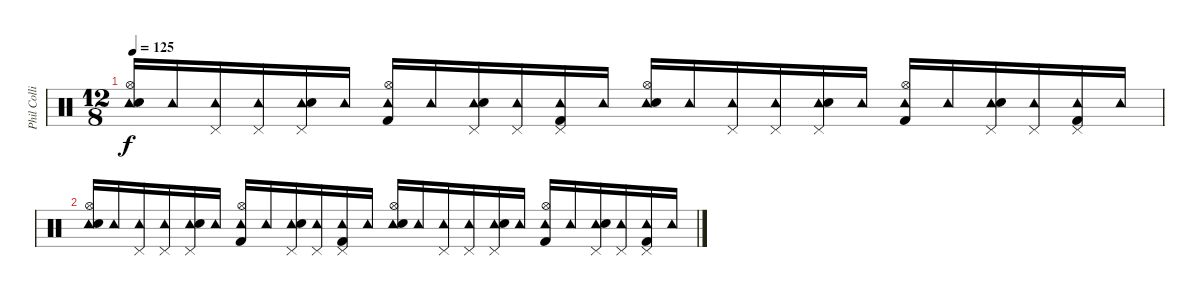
\track ("Phil Collins (drums)" "Phil Colli") {instrument percussion}
\staff {score}
\articulation defaults
\ts (12 8)
\tempo 125
\clef neutral
\ks c
("Tambourine (hit)" "Hi-Hat (open)" "Electric Snare (hit)").16{dy f volume 2} "Tambourine (hit)".16 ("Tambourine (hit)" "Pedal Hi-Hat (hit)").16 ("Tambourine (hit)" "Pedal Hi-Hat (hit)").16 ("Tambourine (hit)" "Pedal Hi-Hat (hit)" "Electric Snare (hit)").16 "Tambourine (hit)".16 ("Tambourine (hit)" "Hi-Hat (open)" "Kick (hit) 2").16 "Tambourine (hit)".16 ("Tambourine (hit)" "Pedal Hi-Hat (hit)" "Electric Snare (hit)").16 ("Tambourine (hit)" "Pedal Hi-Hat (hit)").16 ("Tambourine (hit)" "Pedal Hi-Hat (hit)" "Kick (hit) 2").16 "Tambourine (hit)".16 ("Tambourine (hit)" "Hi-Hat (open)" "Electric Snare (hit)").16 "Tambourine (hit)".16 ("Tambourine (hit)" "Pedal Hi-Hat (hit)").16 ("Tambourine (hit)" "Pedal Hi-Hat (hit)").16 ("Tambourine (hit)" "Pedal Hi-Hat (hit)" "Electric Snare (hit)").16 "Tambourine (hit)".16 ("Tambourine (hit)" "Hi-Hat (open)" "Kick (hit) 2").16 "Tambourine (hit)".16 ("Tambourine (hit)" "Pedal Hi-Hat (hit)" "Electric Snare (hit)").16 ("Tambourine (hit)" "Pedal Hi-Hat (hit)").16 ("Tambourine (hit)" "Pedal Hi-Hat (hit)" "Kick (hit) 2").16 "Tambourine (hit)".16 |
("Tambourine (hit)" "Hi-Hat (open)" "Electric Snare (hit)").16{volume 0} "Tambourine (hit)".16 ("Tambourine (hit)" "Pedal Hi-Hat (hit)").16 ("Tambourine (hit)" "Pedal Hi-Hat (hit)").16 ("Tambourine (hit)" "Pedal Hi-Hat (hit)" "Electric Snare (hit)").16 "Tambourine (hit)".16 ("Tambourine (hit)" "Hi-Hat (open)" "Kick (hit) 2").16 "Tambourine (hit)".16 ("Tambourine (hit)" "Pedal Hi-Hat (hit)" "Electric Snare (hit)").16 ("Tambourine (hit)" "Pedal Hi-Hat (hit)").16 ("Tambourine (hit)" "Pedal Hi-Hat (hit)" "Kick (hit) 2").16 "Tambourine (hit)".16 ("Tambourine (hit)" "Hi-Hat (open)" "Electric Snare (hit)").16 "Tambourine (hit)".16 ("Tambourine (hit)" "Pedal Hi-Hat (hit)").16 ("Tambourine (hit)" "Pedal Hi-Hat (hit)").16 ("Tambourine (hit)" "Pedal Hi-Hat (hit)" "Electric Snare (hit)").16 "Tambourine (hit)".16 ("Tambourine (hit)" "Hi-Hat (open)" "Kick (hit) 2").16 "Tambourine (hit)".16 ("Tambourine (hit)" "Pedal Hi-Hat (hit)" "Electric Snare (hit)").16 ("Tambourine (hit)" "Pedal Hi-Hat (hit)").16 ("Tambourine (hit)" "Pedal Hi-Hat (hit)" "Kick (hit) 2").16 "Tambourine (hit)".16
